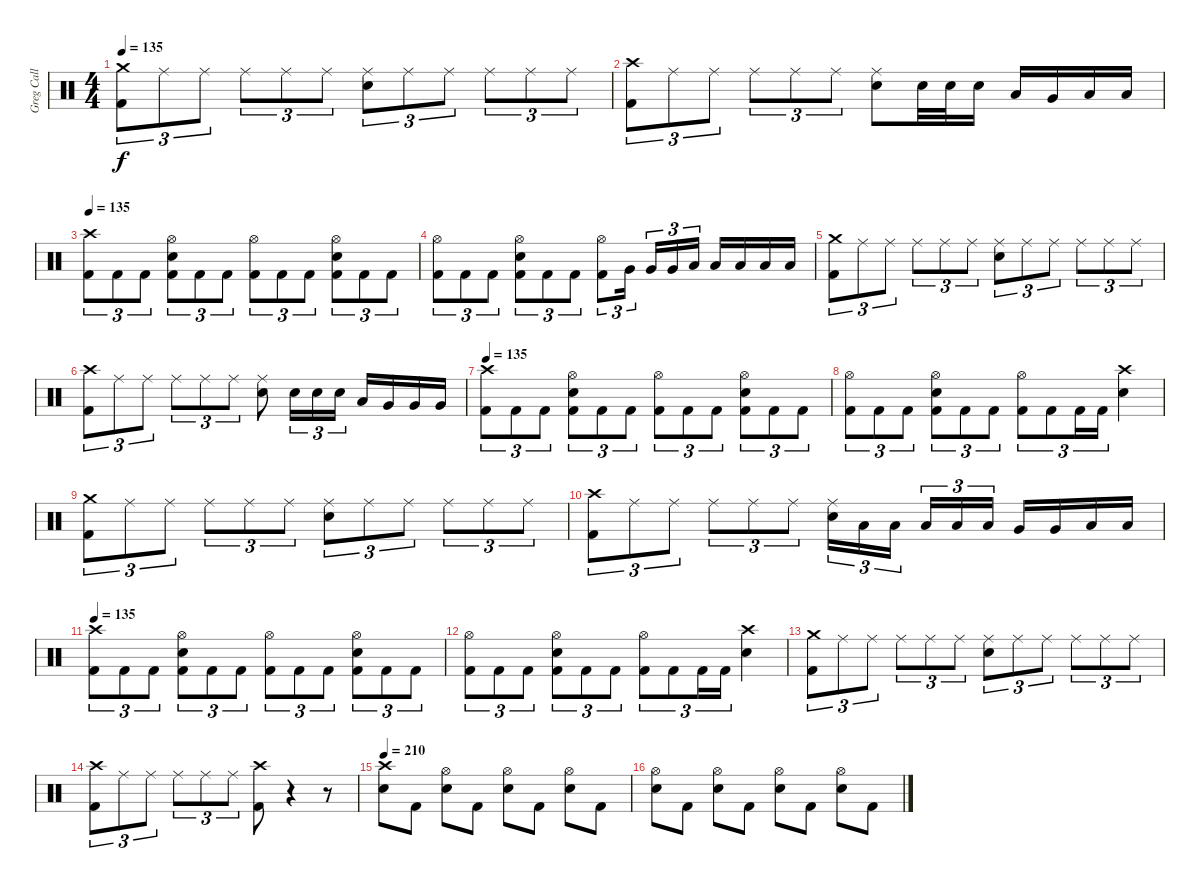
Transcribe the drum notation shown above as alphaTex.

\track ("Greg Call (Drums)" "Greg Call ") {instrument percussion}
\staff {score}
\articulation defaults
\ts (4 4)
\tempo 135
\clef neutral
\ks c
("Crash medium (hit)" "Kick (hit) 2").8{tu (3 2) dy f} "Ride (middle)".8{tu (3 2)} "Ride (middle)".8{tu (3 2)} "Ride (middle)".8{tu (3 2)} "Ride (middle)".8{tu (3 2)} "Ride (middle)".8{tu (3 2)} ("Ride (middle)" "Electric Snare (hit)").8{tu (3 2)} "Ride (middle)".8{tu (3 2)} "Ride (middle)".8{tu (3 2)} "Ride (middle)".8{tu (3 2)} "Ride (middle)".8{tu (3 2)} "Ride (middle)".8{tu (3 2)} |
("Crash high (hit)" "Kick (hit) 2").8{tu (3 2)} "Ride (middle)".8{tu (3 2)} "Ride (middle)".8{tu (3 2)} "Ride (middle)".8{tu (3 2)} "Ride (middle)".8{tu (3 2)} "Ride (middle)".8{tu (3 2)} ("Ride (middle)" "Electric Snare (hit)").8 "Electric Snare (hit)".32 "Electric Snare (hit)".32 "Electric Snare (hit)".16 "Low Tom (hit)".16 "Very Low Tom (hit)".16 "Low Floor Tom (hit)".16 "Low Floor Tom (hit)".16 |
\tempo 135
("Crash high (hit)" "Kick (hit) 2").8{tu (3 2)} "Kick (hit) 2".8{tu (3 2)} "Kick (hit) 2".8{tu (3 2)} ("Hi-Hat (open)" "Electric Snare (hit)" "Kick (hit) 2").8{tu (3 2)} "Kick (hit) 2".8{tu (3 2)} "Kick (hit) 2".8{tu (3 2)} ("Hi-Hat (open)" "Kick (hit) 2").8{tu (3 2)} "Kick (hit) 2".8{tu (3 2)} "Kick (hit) 2".8{tu (3 2)} ("Hi-Hat (open)" "Electric Snare (hit)" "Kick (hit) 2").8{tu (3 2)} "Kick (hit) 2".8{tu (3 2)} "Kick (hit) 2".8{tu (3 2)} |
("Hi-Hat (open)" "Kick (hit) 2").8{tu (3 2)} "Kick (hit) 2".8{tu (3 2)} "Kick (hit) 2".8{tu (3 2)} ("Hi-Hat (open)" "Electric Snare (hit)" "Kick (hit) 2").8{tu (3 2)} "Kick (hit) 2".8{tu (3 2)} "Kick (hit) 2".8{tu (3 2)} ("Hi-Hat (open)" "Kick (hit) 2").8{tu (3 2)} "Very Low Tom (hit)".16{tu (3 2)} "Very Low Tom (hit)".16{tu (3 2)} "Very Low Tom (hit)".16{tu (3 2)} "Low Floor Tom (hit)".16{tu (3 2)} "Low Floor Tom (hit)".16 "Low Floor Tom (hit)".16 "Low Floor Tom (hit)".16 "Low Floor Tom (hit)".16 |
("Crash medium (hit)" "Kick (hit) 2").8{tu (3 2)} "Ride (middle)".8{tu (3 2)} "Ride (middle)".8{tu (3 2)} "Ride (middle)".8{tu (3 2)} "Ride (middle)".8{tu (3 2)} "Ride (middle)".8{tu (3 2)} ("Ride (middle)" "Electric Snare (hit)").8{tu (3 2)} "Ride (middle)".8{tu (3 2)} "Ride (middle)".8{tu (3 2)} "Ride (middle)".8{tu (3 2)} "Ride (middle)".8{tu (3 2)} "Ride (middle)".8{tu (3 2)} |
("Crash high (hit)" "Kick (hit) 2").8{tu (3 2)} "Ride (middle)".8{tu (3 2)} "Ride (middle)".8{tu (3 2)} "Ride (middle)".8{tu (3 2)} "Ride (middle)".8{tu (3 2)} "Ride (middle)".8{tu (3 2)} ("Ride (middle)" "Electric Snare (hit)").8 "Electric Snare (hit)".16{tu (3 2)} "Electric Snare (hit)".16{tu (3 2)} "Electric Snare (hit)".16{tu (3 2)} "Low Tom (hit)".16 "Very Low Tom (hit)".16 "Very Low Tom (hit)".16 "Very Low Tom (hit)".16 |
\tempo 135
("Crash high (hit)" "Kick (hit) 2").8{tu (3 2)} "Kick (hit) 2".8{tu (3 2)} "Kick (hit) 2".8{tu (3 2)} ("Hi-Hat (open)" "Electric Snare (hit)" "Kick (hit) 2").8{tu (3 2)} "Kick (hit) 2".8{tu (3 2)} "Kick (hit) 2".8{tu (3 2)} ("Hi-Hat (open)" "Kick (hit) 2").8{tu (3 2)} "Kick (hit) 2".8{tu (3 2)} "Kick (hit) 2".8{tu (3 2)} ("Hi-Hat (open)" "Electric Snare (hit)" "Kick (hit) 2").8{tu (3 2)} "Kick (hit) 2".8{tu (3 2)} "Kick (hit) 2".8{tu (3 2)} |
("Hi-Hat (open)" "Kick (hit) 2").8{tu (3 2)} "Kick (hit) 2".8{tu (3 2)} "Kick (hit) 2".8{tu (3 2)} ("Hi-Hat (open)" "Electric Snare (hit)" "Kick (hit) 2").8{tu (3 2)} "Kick (hit) 2".8{tu (3 2)} "Kick (hit) 2".8{tu (3 2)} ("Hi-Hat (open)" "Kick (hit) 2").8{tu (3 2)} "Kick (hit) 2".8{tu (3 2)} "Kick (hit) 2".16{tu (3 2)} "Kick (hit) 2".16{tu (3 2)} ("Crash high (hit)" "Electric Snare (hit)").4 |
("Crash medium (hit)" "Kick (hit) 2").8{tu (3 2)} "Ride (middle)".8{tu (3 2)} "Ride (middle)".8{tu (3 2)} "Ride (middle)".8{tu (3 2)} "Ride (middle)".8{tu (3 2)} "Ride (middle)".8{tu (3 2)} ("Ride (middle)" "Electric Snare (hit)").8{tu (3 2)} "Ride (middle)".8{tu (3 2)} "Ride (middle)".8{tu (3 2)} "Ride (middle)".8{tu (3 2)} "Ride (middle)".8{tu (3 2)} "Ride (middle)".8{tu (3 2)} |
("Crash high (hit)" "Kick (hit) 2").8{tu (3 2)} "Ride (middle)".8{tu (3 2)} "Ride (middle)".8{tu (3 2)} "Ride (middle)".8{tu (3 2)} "Ride (middle)".8{tu (3 2)} "Ride (middle)".8{tu (3 2)} ("Ride (middle)" "Electric Snare (hit)").16{tu (3 2)} "Low Tom (hit)".16{tu (3 2)} "Low Tom (hit)".16{tu (3 2)} "Low Tom (hit)".16{tu (3 2)} "Low Tom (hit)".16{tu (3 2)} "Low Tom (hit)".16{tu (3 2)} "Very Low Tom (hit)".16 "Very Low Tom (hit)".16 "Low Floor Tom (hit)".16 "Low Floor Tom (hit)".16 |
\tempo 135
("Crash high (hit)" "Kick (hit) 2").8{tu (3 2)} "Kick (hit) 2".8{tu (3 2)} "Kick (hit) 2".8{tu (3 2)} ("Hi-Hat (open)" "Electric Snare (hit)" "Kick (hit) 2").8{tu (3 2)} "Kick (hit) 2".8{tu (3 2)} "Kick (hit) 2".8{tu (3 2)} ("Hi-Hat (open)" "Kick (hit) 2").8{tu (3 2)} "Kick (hit) 2".8{tu (3 2)} "Kick (hit) 2".8{tu (3 2)} ("Hi-Hat (open)" "Electric Snare (hit)" "Kick (hit) 2").8{tu (3 2)} "Kick (hit) 2".8{tu (3 2)} "Kick (hit) 2".8{tu (3 2)} |
("Hi-Hat (open)" "Kick (hit) 2").8{tu (3 2)} "Kick (hit) 2".8{tu (3 2)} "Kick (hit) 2".8{tu (3 2)} ("Hi-Hat (open)" "Electric Snare (hit)" "Kick (hit) 2").8{tu (3 2)} "Kick (hit) 2".8{tu (3 2)} "Kick (hit) 2".8{tu (3 2)} ("Hi-Hat (open)" "Kick (hit) 2").8{tu (3 2)} "Kick (hit) 2".8{tu (3 2)} "Kick (hit) 2".16{tu (3 2)} "Kick (hit) 2".16{tu (3 2)} ("Crash high (hit)" "Electric Snare (hit)").4 |
("Crash medium (hit)" "Kick (hit) 2").8{tu (3 2)} "Ride (middle)".8{tu (3 2)} "Ride (middle)".8{tu (3 2)} "Ride (middle)".8{tu (3 2)} "Ride (middle)".8{tu (3 2)} "Ride (middle)".8{tu (3 2)} ("Ride (middle)" "Electric Snare (hit)").8{tu (3 2)} "Ride (middle)".8{tu (3 2)} "Ride (middle)".8{tu (3 2)} "Ride (middle)".8{tu (3 2)} "Ride (middle)".8{tu (3 2)} "Ride (middle)".8{tu (3 2)} |
("Crash high (hit)" "Kick (hit) 2").8{tu (3 2)} "Ride (middle)".8{tu (3 2)} "Ride (middle)".8{tu (3 2)} "Ride (middle)".8{tu (3 2)} "Ride (middle)".8{tu (3 2)} "Ride (middle)".8{tu (3 2)} ("Crash high (hit)" "Kick (hit) 2").8 r.4{volume 0} r.8 |
\tempo 210
("Crash high (hit)" "Electric Snare (hit)").8{volume 13} "Kick (hit) 2".8 ("Hi-Hat (open)" "Electric Snare (hit)").8 "Kick (hit) 2".8 ("Hi-Hat (open)" "Electric Snare (hit)").8 "Kick (hit) 2".8 ("Hi-Hat (open)" "Electric Snare (hit)").8 "Kick (hit) 2".8 |
("Hi-Hat (open)" "Electric Snare (hit)").8 "Kick (hit) 2".8 ("Hi-Hat (open)" "Electric Snare (hit)").8 "Kick (hit) 2".8 ("Hi-Hat (open)" "Electric Snare (hit)").8 "Kick (hit) 2".8 ("Hi-Hat (open)" "Electric Snare (hit)").8 "Kick (hit) 2".8
